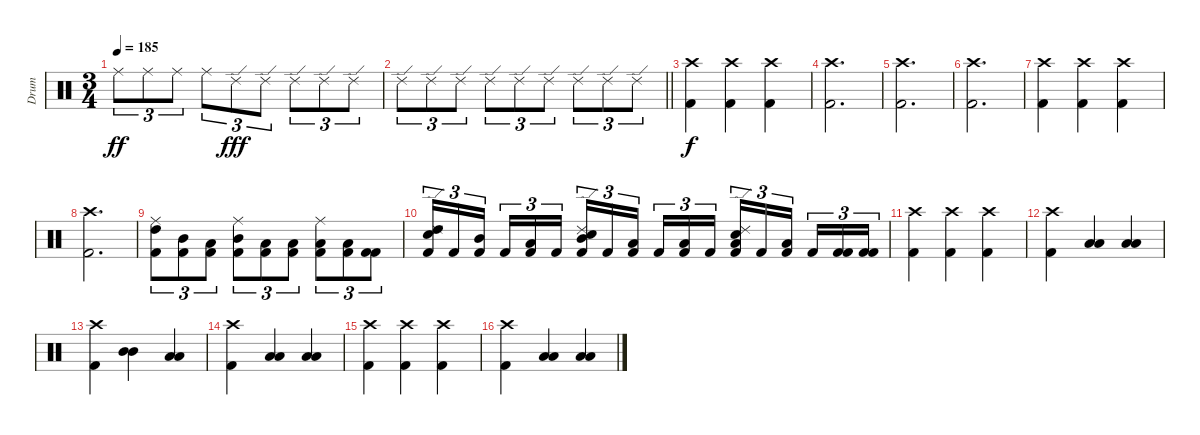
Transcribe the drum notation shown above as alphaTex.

\track ("Drum" "Drum") {instrument percussion}
\staff {score}
\articulation defaults
\ts (3 4)
\tempo 185
\clef neutral
\ks c "Ride (middle)".8{tu (3 2) dy ff} "Ride (middle)".8{tu (3 2)} "Ride (middle)".8{tu (3 2)} "Ride (middle)".8{tu (3 2)} "Ride (edge) 2".8{tu (3 2) dy fff} "Ride (edge) 2".8{tu (3 2)} "Ride (edge) 2".8{tu (3 2)} "Ride (edge) 2".8{tu (3 2)} "Ride (edge) 2".8{tu (3 2)}
|
\barLineRight lightlight "Ride (edge) 2".8{tu (3 2)} "Ride (edge) 2".8{tu (3 2)} "Ride (edge) 2".8{tu (3 2)} "Ride (edge) 2".8{tu (3 2)} "Ride (edge) 2".8{tu (3 2)} "Ride (edge) 2".8{tu (3 2)} "Ride (edge) 2".8{tu (3 2)} "Ride (edge) 2".8{tu (3 2)} "Ride (edge) 2".8{tu (3 2)}
|
("Crash high (hit)" "Kick (hit) 2").4{dy f} ("Crash high (hit)" "Kick (hit) 2").4 ("Crash high (hit)" "Kick (hit) 2").4 |
("Crash high (hit)" "Kick (hit) 2").2{d} |
("Crash high (hit)" "Kick (hit) 2").2{d} |
("Crash high (hit)" "Kick (hit) 2").2{d} |
("Crash high (hit)" "Kick (hit) 2").4 ("Crash high (hit)" "Kick (hit) 2").4 ("Crash high (hit)" "Kick (hit) 2").4 |
("Crash high (hit)" "Kick (hit) 2").2{d} |
("Ride (middle)" "High Tom (hit)" "Kick (hit) 2").8{tu (3 2)} ("Mid Tom (hit)" "Kick (hit) 2").8{tu (3 2)} ("Low Tom (hit)" "Kick (hit) 2").8{tu (3 2)} ("Ride (middle)" "Mid Tom (hit)" "Kick (hit) 2").8{tu (3 2)} ("Low Tom (hit)" "Kick (hit) 2").8{tu (3 2)} ("Low Floor Tom (hit)" "Kick (hit) 2").8{tu (3 2)} ("Ride (middle)" "Low Tom (hit)" "Kick (hit) 2").8{tu (3 2)} ("Low Floor Tom (hit)" "Kick (hit) 2").8{tu (3 2)} ("Kick (hit) 2" "Kick (hit) 2").8{tu (3 2)} |
("Ride (edge) 2" "Electric Snare (hit)" "High Tom (hit)" "Kick (hit) 2").16{tu (3 2)} "Kick (hit) 2".16{tu (3 2)} ("Mid Tom (hit)" "Kick (hit) 2").16{tu (3 2) beam splitsecondary} "Kick (hit) 2".16{tu (3 2)} ("Low Tom (hit)" "Kick (hit) 2").16{tu (3 2)} "Kick (hit) 2".16{tu (3 2)} ("Ride (edge) 2" "Electric Snare (hit)" "Mid Tom (hit)" "Kick (hit) 2").16{tu (3 2)} "Kick (hit) 2".16{tu (3 2)} ("Low Tom (hit)" "Kick (hit) 2").16{tu (3 2) beam splitsecondary} "Kick (hit) 2".16{tu (3 2)} ("Low Floor Tom (hit)" "Kick (hit) 2").16{tu (3 2)} "Kick (hit) 2".16{tu (3 2)} ("Ride (edge) 2" "Electric Snare (hit)" "Low Tom (hit)" "Kick (hit) 2").16{tu (3 2)} "Kick (hit) 2".16{tu (3 2)} ("Low Floor Tom (hit)" "Kick (hit) 2").16{tu (3 2) beam splitsecondary} "Kick (hit) 2".16{tu (3 2)} ("Kick (hit) 2" "Kick (hit) 2").16{tu (3 2)} ("Kick (hit) 2" "Kick (hit) 2").16{tu (3 2)} |
("Crash high (hit)" "Kick (hit) 2").4 ("Crash high (hit)" "Kick (hit) 2").4 ("Crash high (hit)" "Kick (hit) 2").4 |
("Crash high (hit)" "Kick (hit) 2").4 ("Low Tom (hit)" "Low Tom (hit)").4 ("Low Floor Tom (hit)" "Low Floor Tom (hit)").4 |
("Crash high (hit)" "Kick (hit) 2").4 ("Mid Tom (hit)" "Mid Tom (hit)").4 ("Low Tom (hit)" "Low Tom (hit)").4 |
("Crash high (hit)" "Kick (hit) 2").4 ("Low Floor Tom (hit)" "Low Floor Tom (hit)").4 ("Low Tom (hit)" "Low Tom (hit)").4 |
("Crash high (hit)" "Kick (hit) 2").4 ("Crash high (hit)" "Kick (hit) 2").4 ("Crash high (hit)" "Kick (hit) 2").4 |
("Crash high (hit)" "Kick (hit) 2").4 ("Low Tom (hit)" "Low Tom (hit)").4 ("Low Floor Tom (hit)" "Low Floor Tom (hit)").4
